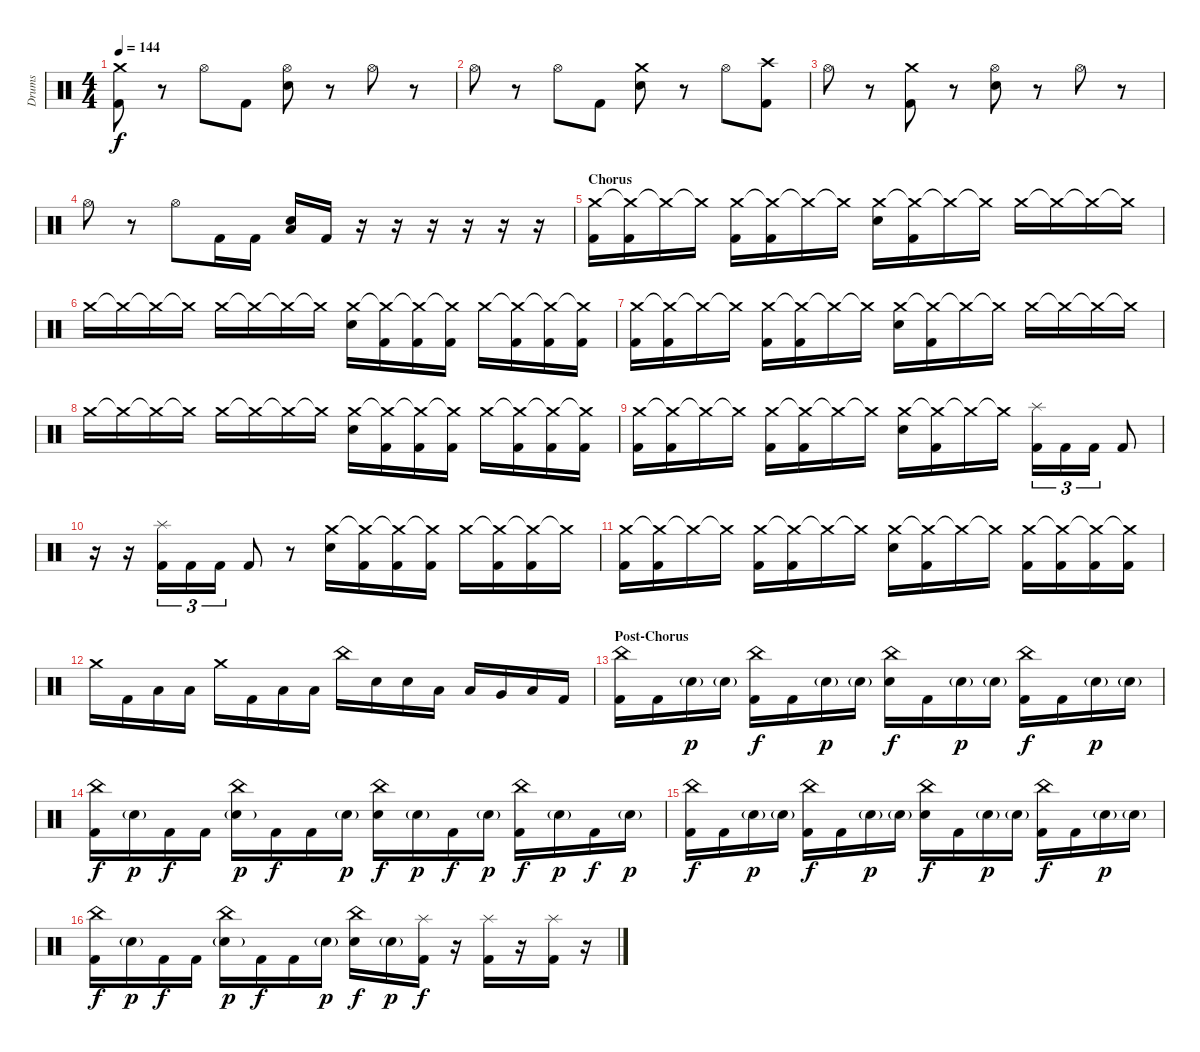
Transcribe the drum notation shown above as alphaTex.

\track ("Drums" "Drums") {instrument percussion}
\staff {score}
\articulation defaults
\ts (4 4)
\tempo 144
\clef neutral
\ks c
("Crash medium (hit)" "Kick (hit) 2").8{dy f} r.8 "Hi-Hat (open)".8 "Kick (hit) 2".8 ("Hi-Hat (open)" "Electric Snare (hit)").8 r.8 "Hi-Hat (open)".8 r.8 |
"Hi-Hat (open)".8 r.8 "Hi-Hat (open)".8 "Kick (hit) 2".8 ("Crash medium (hit)" "Electric Snare (hit)").8 r.8 "Hi-Hat (open)".8 ("Crash high (hit)" "Kick (hit) 2").8 |
"Hi-Hat (open)".8 r.8 ("Crash medium (hit)" "Kick (hit) 2").8 r.8 ("Hi-Hat (open)" "Electric Snare (hit)").8 r.8 "Hi-Hat (open)".8 r.8 |
"Hi-Hat (open)".8 r.8 "Hi-Hat (open)".8 "Kick (hit) 2".16 "Kick (hit) 2".16 ("Low Floor Tom (hit)" "Electric Snare (hit)").16 "Kick (hit) 2".16 r.16 r.16 r.16 r.16 r.16 r.16 |
\section ("" "Chorus")
("Crash medium (hit)" "Kick (hit) 2").16 ("Crash medium (hit)"{t} "Kick (hit) 2").16 "Crash medium (hit)"{t}.16 "Crash medium (hit)"{t}.16 ("Crash medium (hit)" "Kick (hit) 2").16 ("Crash medium (hit)"{t} "Kick (hit) 2").16 "Crash medium (hit)"{t}.16 "Crash medium (hit)"{t}.16 ("Crash medium (hit)" "Electric Snare (hit)").16 ("Crash medium (hit)"{t} "Kick (hit) 2").16 "Crash medium (hit)"{t}.16 "Crash medium (hit)"{t}.16 "Crash medium (hit)".16 "Crash medium (hit)"{t}.16 "Crash medium (hit)"{t}.16 "Crash medium (hit)"{t}.16 |
"Crash medium (hit)".16 "Crash medium (hit)"{t}.16 "Crash medium (hit)"{t}.16 "Crash medium (hit)"{t}.16 "Crash medium (hit)".16 "Crash medium (hit)"{t}.16 "Crash medium (hit)"{t}.16 "Crash medium (hit)"{t}.16 ("Crash medium (hit)" "Electric Snare (hit)").16 ("Crash medium (hit)"{t} "Kick (hit) 2").16 ("Crash medium (hit)"{t} "Kick (hit) 2").16 ("Crash medium (hit)"{t} "Kick (hit) 2").16 "Crash medium (hit)".16 ("Crash medium (hit)"{t} "Kick (hit) 2").16 ("Crash medium (hit)"{t} "Kick (hit) 2").16 ("Crash medium (hit)"{t} "Kick (hit) 2").16 |
("Crash medium (hit)" "Kick (hit) 2").16 ("Crash medium (hit)"{t} "Kick (hit) 2").16 "Crash medium (hit)"{t}.16 "Crash medium (hit)"{t}.16 ("Crash medium (hit)" "Kick (hit) 2").16 ("Crash medium (hit)"{t} "Kick (hit) 2").16 "Crash medium (hit)"{t}.16 "Crash medium (hit)"{t}.16 ("Crash medium (hit)" "Electric Snare (hit)").16 ("Crash medium (hit)"{t} "Kick (hit) 2").16 "Crash medium (hit)"{t}.16 "Crash medium (hit)"{t}.16 "Crash medium (hit)".16 "Crash medium (hit)"{t}.16 "Crash medium (hit)"{t}.16 "Crash medium (hit)"{t}.16 |
"Crash medium (hit)".16 "Crash medium (hit)"{t}.16 "Crash medium (hit)"{t}.16 "Crash medium (hit)"{t}.16 "Crash medium (hit)".16 "Crash medium (hit)"{t}.16 "Crash medium (hit)"{t}.16 "Crash medium (hit)"{t}.16 ("Crash medium (hit)" "Electric Snare (hit)").16 ("Crash medium (hit)"{t} "Kick (hit) 2").16 ("Crash medium (hit)"{t} "Kick (hit) 2").16 ("Crash medium (hit)"{t} "Kick (hit) 2").16 "Crash medium (hit)".16 ("Crash medium (hit)"{t} "Kick (hit) 2").16 ("Crash medium (hit)"{t} "Kick (hit) 2").16 ("Crash medium (hit)"{t} "Kick (hit) 2").16 |
("Crash medium (hit)" "Kick (hit) 2").16 ("Crash medium (hit)"{t} "Kick (hit) 2").16 "Crash medium (hit)"{t}.16 "Crash medium (hit)"{t}.16 ("Crash medium (hit)" "Kick (hit) 2").16 ("Crash medium (hit)"{t} "Kick (hit) 2").16 "Crash medium (hit)"{t}.16 "Crash medium (hit)"{t}.16 ("Crash medium (hit)" "Electric Snare (hit)").16 ("Crash medium (hit)"{t} "Kick (hit) 2").16 "Crash medium (hit)"{t}.16 "Crash medium (hit)"{t}.16 ("Splash (hit)" "Kick (hit) 2").16{tu (3 2)} "Kick (hit) 2".16{tu (3 2)} "Kick (hit) 2".16{tu (3 2)} "Kick (hit) 2".8 |
r.16 r.16 ("Splash (hit)" "Kick (hit) 2").16{tu (3 2)} "Kick (hit) 2".16{tu (3 2)} "Kick (hit) 2".16{tu (3 2)} "Kick (hit) 2".8 r.8 ("Crash medium (hit)" "Electric Snare (hit)").16 ("Crash medium (hit)"{t} "Kick (hit) 2").16 ("Crash medium (hit)"{t} "Kick (hit) 2").16 ("Crash medium (hit)"{t} "Kick (hit) 2").16 "Crash medium (hit)".16 ("Crash medium (hit)"{t} "Kick (hit) 2").16 ("Crash medium (hit)"{t} "Kick (hit) 2").16 "Crash medium (hit)"{t}.16 |
("Crash medium (hit)" "Kick (hit) 2").16 ("Crash medium (hit)"{t} "Kick (hit) 2").16 "Crash medium (hit)"{t}.16 "Crash medium (hit)"{t}.16 ("Crash medium (hit)" "Kick (hit) 2").16 ("Crash medium (hit)"{t} "Kick (hit) 2").16 "Crash medium (hit)"{t}.16 "Crash medium (hit)"{t}.16 ("Crash medium (hit)" "Electric Snare (hit)").16 ("Crash medium (hit)"{t} "Kick (hit) 2").16 "Crash medium (hit)"{t}.16 "Crash medium (hit)"{t}.16 ("Crash medium (hit)" "Kick (hit) 2").16 ("Crash medium (hit)"{t} "Kick (hit) 2").16 ("Crash medium (hit)"{t} "Kick (hit) 2").16 ("Crash medium (hit)"{t} "Kick (hit) 2").16 |
"Crash medium (hit)".16 "Kick (hit) 2".16 "Low Tom (hit)".16 "Low Tom (hit)".16 "Crash medium (hit)".16 "Kick (hit) 2".16 "Low Tom (hit)".16 "Low Tom (hit)".16 "China (hit)".16 "Electric Snare (hit)".16 "Electric Snare (hit)".16 "Low Tom (hit)".16 "Low Tom (hit)".16 "Very Low Tom (hit)".16 "Low Floor Tom (hit)".16 "Kick (hit) 2".16 |
\section ("" "Post-Chorus")
("China (hit)" "Kick (hit) 2").16 "Kick (hit) 2".16 "Snare (hit) 2"{g}.16{dy p} "Snare (hit) 2"{g}.16 ("China (hit)" "Kick (hit) 2").16{dy f} "Kick (hit) 2".16 "Snare (hit) 2"{g}.16{dy p} "Snare (hit) 2"{g}.16 ("China (hit)" "Electric Snare (hit)").16{dy f} "Kick (hit) 2".16 "Snare (hit) 2"{g}.16{dy p} "Snare (hit) 2"{g}.16 ("China (hit)" "Kick (hit) 2").16{dy f} "Kick (hit) 2".16 "Snare (hit) 2"{g}.16{dy p} "Snare (hit) 2"{g}.16 |
("China (hit)" "Kick (hit) 2").16{dy f} "Snare (hit) 2"{g}.16{dy p} "Kick (hit) 2".16{dy f} "Kick (hit) 2".16 ("China (hit)" "Snare (hit) 2"{g}).16{dy p} "Kick (hit) 2".16{dy f} "Kick (hit) 2".16 "Snare (hit) 2"{g}.16{dy p} ("China (hit)" "Electric Snare (hit)").16{dy f} "Snare (hit) 2"{g}.16{dy p} "Kick (hit) 2".16{dy f} "Snare (hit) 2"{g}.16{dy p} ("China (hit)" "Kick (hit) 2").16{dy f} "Snare (hit) 2"{g}.16{dy p} "Kick (hit) 2".16{dy f} "Snare (hit) 2"{g}.16{dy p} |
("China (hit)" "Kick (hit) 2").16{dy f} "Kick (hit) 2".16 "Snare (hit) 2"{g}.16{dy p} "Snare (hit) 2"{g}.16 ("China (hit)" "Kick (hit) 2").16{dy f} "Kick (hit) 2".16 "Snare (hit) 2"{g}.16{dy p} "Snare (hit) 2"{g}.16 ("China (hit)" "Electric Snare (hit)").16{dy f} "Kick (hit) 2".16 "Snare (hit) 2"{g}.16{dy p} "Snare (hit) 2"{g}.16 ("China (hit)" "Kick (hit) 2").16{dy f} "Kick (hit) 2".16 "Snare (hit) 2"{g}.16{dy p} "Snare (hit) 2"{g}.16 |
("China (hit)" "Kick (hit) 2").16{dy f} "Snare (hit) 2"{g}.16{dy p} "Kick (hit) 2".16{dy f} "Kick (hit) 2".16 ("China (hit)" "Snare (hit) 2"{g}).16{dy p} "Kick (hit) 2".16{dy f} "Kick (hit) 2".16 "Snare (hit) 2"{g}.16{dy p} ("China (hit)" "Electric Snare (hit)").16{dy f} "Snare (hit) 2"{g}.16{dy p} ("Splash (hit)" "Kick (hit) 2").16{dy f} r.16 ("Splash (hit)" "Kick (hit) 2").16 r.16 ("Splash (hit)" "Kick (hit) 2").16 r.16
